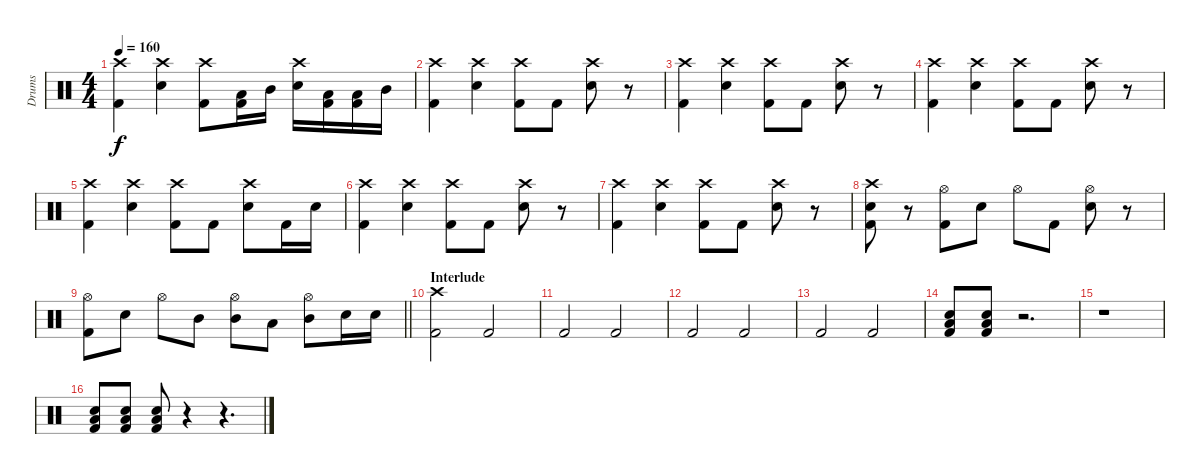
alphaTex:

\track ("Drums" "Drums") {instrument percussion}
\staff {score}
\articulation defaults
\ts (4 4)
\tempo 160
\clef neutral
\ks c
("Crash high (hit)" "Kick (hit) 2").4{dy f} ("Crash high (hit)" "Electric Snare (hit)").4 ("Crash high (hit)" "Kick (hit) 2").8 ("Low Tom (hit)" "Kick (hit) 2").16 "Mid Tom (hit)".16 ("Crash high (hit)" "Electric Snare (hit)").16 ("Low Tom (hit)" "Kick (hit) 2").16 ("Low Tom (hit)" "Kick (hit) 2").16 "Mid Tom (hit)".16 |
("Crash high (hit)" "Kick (hit) 2").4 ("Crash high (hit)" "Electric Snare (hit)").4 ("Crash high (hit)" "Kick (hit) 2").8 "Kick (hit) 2".8 ("Crash high (hit)" "Electric Snare (hit)").8 r.8 |
("Crash high (hit)" "Kick (hit) 2").4 ("Crash high (hit)" "Electric Snare (hit)").4 ("Crash high (hit)" "Kick (hit) 2").8 "Kick (hit) 2".8 ("Crash high (hit)" "Electric Snare (hit)").8 r.8 |
("Crash high (hit)" "Kick (hit) 2").4 ("Crash high (hit)" "Electric Snare (hit)").4 ("Crash high (hit)" "Kick (hit) 2").8 "Kick (hit) 2".8 ("Crash high (hit)" "Electric Snare (hit)").8 r.8 |
("Crash high (hit)" "Kick (hit) 2").4 ("Crash high (hit)" "Electric Snare (hit)").4 ("Crash high (hit)" "Kick (hit) 2").8 "Kick (hit) 2".8 ("Crash high (hit)" "Electric Snare (hit)").8 "Kick (hit) 2".16 "Electric Snare (hit)".16 |
("Crash high (hit)" "Kick (hit) 2").4 ("Crash high (hit)" "Electric Snare (hit)").4 ("Crash high (hit)" "Kick (hit) 2").8 "Kick (hit) 2".8 ("Crash high (hit)" "Electric Snare (hit)").8 r.8 |
("Crash high (hit)" "Kick (hit) 2").4 ("Crash high (hit)" "Electric Snare (hit)").4 ("Crash high (hit)" "Kick (hit) 2").8 "Kick (hit) 2".8 ("Crash high (hit)" "Electric Snare (hit)").8 r.8 |
("Crash high (hit)" "Electric Snare (hit)" "Kick (hit) 2").8 r.8 ("Hi-Hat (open)" "Kick (hit) 2").8 "Electric Snare (hit)".8 "Hi-Hat (open)".8 "Kick (hit) 2".8 ("Hi-Hat (open)" "Electric Snare (hit)").8 r.8 |
\barLineRight lightlight
("Hi-Hat (open)" "Kick (hit) 2").8 "Electric Snare (hit)".8 "Hi-Hat (open)".8 "Mid Tom (hit)".8 ("Hi-Hat (open)" "Mid Tom (hit)").8 "Low Tom (hit)".8 ("Hi-Hat (open)" "Mid Tom (hit)").8 "Electric Snare (hit)".16 "Electric Snare (hit)".16 |
\section ("" "Interlude")
("Crash high (hit)" "Kick (hit) 2").2 "Kick (hit) 2".2 |
"Kick (hit) 2".2 "Kick (hit) 2".2 |
"Kick (hit) 2".2 "Kick (hit) 2".2 |
"Kick (hit) 2".2 "Kick (hit) 2".2 |
("Low Tom (hit)" "Electric Snare (hit)" "Kick (hit) 2").8 ("Low Tom (hit)" "Electric Snare (hit)" "Kick (hit) 2").8 r.2{d} |
r.1 |
("Low Tom (hit)" "Electric Snare (hit)" "Kick (hit) 2").8 ("Low Tom (hit)" "Electric Snare (hit)" "Kick (hit) 2").8 ("Low Tom (hit)" "Electric Snare (hit)" "Kick (hit) 2").8 r.4 r.4{d}
